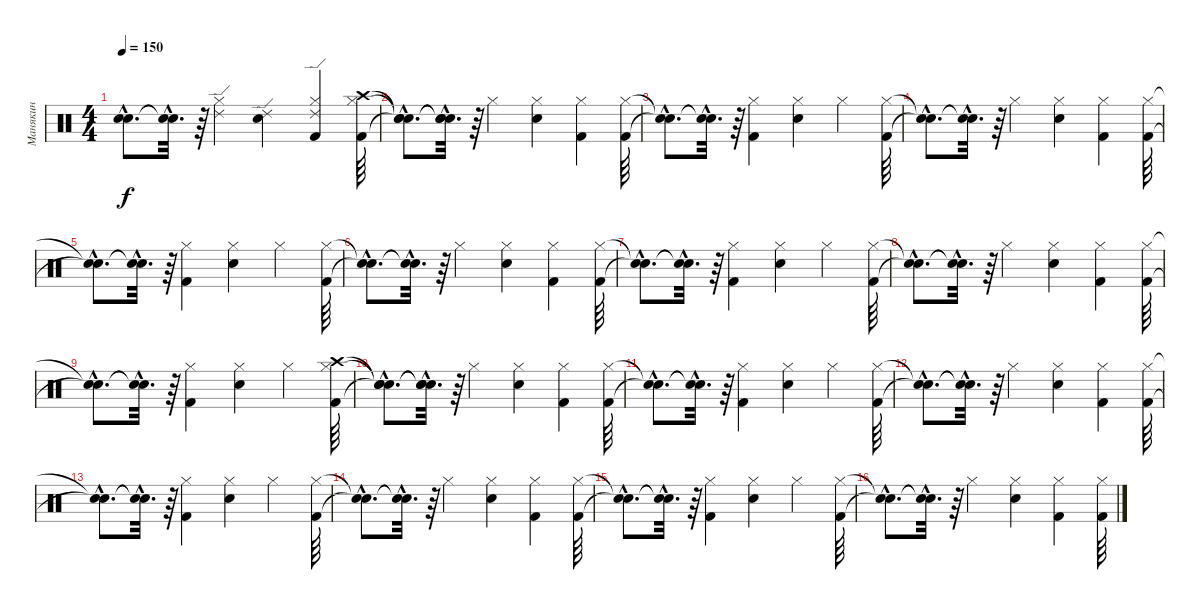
\track ("Манякин" "Манякин") {instrument percussion}
\staff {score}
\articulation defaults
\ts (4 4)
\tempo 150
\clef neutral
\ks c
("Snare (hit)"{hac t} "Snare (hit)"{hac t}).8{d dy f} ("Snare (hit)"{hac t} "Snare (hit)"{hac t}).32{d} r.64 ("Ride (edge) 2" "Hi-Hat (closed)").4 ("Ride (edge) 2" "Snare (hit) 2").4 ("Hi-Hat (closed)" "Kick (hit) 2" "Ride (edge) 2").4 ("Hi-Hat (closed)" "Crash high (hit)" "Kick (hit) 2").64 |
("Snare (hit)"{hac t} "Snare (hit)"{hac t} "Snare (hit)"{hac t}).8{d} ("Snare (hit)"{hac t} "Snare (hit)"{hac t} "Snare (hit)"{hac t}).32{d} r.64 "Hi-Hat (closed)".4 ("Hi-Hat (closed)" "Snare (hit) 2").4 ("Hi-Hat (closed)" "Kick (hit) 2").4 ("Hi-Hat (closed)" "Kick (hit) 2").64 |
("Snare (hit)"{hac t} "Snare (hit)"{hac t}).8{d} ("Snare (hit)"{hac t} "Snare (hit)"{hac t}).32{d} r.64 ("Hi-Hat (closed)" "Kick (hit) 2").4 ("Hi-Hat (closed)" "Snare (hit) 2").4 "Hi-Hat (closed)".4 ("Hi-Hat (closed)" "Kick (hit) 2").64 |
("Snare (hit)"{hac t} "Snare (hit)"{hac t}).8{d} ("Snare (hit)"{hac t} "Snare (hit)"{hac t}).32{d} r.64 "Hi-Hat (closed)".4 ("Hi-Hat (closed)" "Snare (hit) 2").4 ("Hi-Hat (closed)" "Kick (hit) 2").4 ("Hi-Hat (closed)" "Kick (hit) 2").64 |
("Snare (hit)"{hac t} "Snare (hit)"{hac t}).8{d} ("Snare (hit)"{hac t} "Snare (hit)"{hac t}).32{d} r.64 ("Hi-Hat (closed)" "Kick (hit) 2").4 ("Hi-Hat (closed)" "Snare (hit) 2").4 "Hi-Hat (closed)".4 ("Hi-Hat (closed)" "Kick (hit) 2").64 |
("Snare (hit)"{hac t} "Snare (hit)"{hac t}).8{d} ("Snare (hit)"{hac t} "Snare (hit)"{hac t}).32{d} r.64 "Hi-Hat (closed)".4 ("Hi-Hat (closed)" "Snare (hit) 2").4 ("Hi-Hat (closed)" "Kick (hit) 2").4 ("Hi-Hat (closed)" "Kick (hit) 2").64 |
("Snare (hit)"{hac t} "Snare (hit)"{hac t}).8{d} ("Snare (hit)"{hac t} "Snare (hit)"{hac t}).32{d} r.64 ("Hi-Hat (closed)" "Kick (hit) 2").4 ("Hi-Hat (closed)" "Snare (hit) 2").4 "Hi-Hat (closed)".4 ("Hi-Hat (closed)" "Kick (hit) 2").64 |
("Snare (hit)"{hac t} "Snare (hit)"{hac t}).8{d} ("Snare (hit)"{hac t} "Snare (hit)"{hac t}).32{d} r.64 "Hi-Hat (closed)".4 ("Hi-Hat (closed)" "Snare (hit) 2").4 ("Hi-Hat (closed)" "Kick (hit) 2").4 ("Hi-Hat (closed)" "Kick (hit) 2").64 |
("Snare (hit)"{hac t} "Snare (hit)"{hac t}).8{d} ("Snare (hit)"{hac t} "Snare (hit)"{hac t}).32{d} r.64 ("Hi-Hat (closed)" "Kick (hit) 2").4 ("Hi-Hat (closed)" "Snare (hit) 2").4 "Hi-Hat (closed)".4 ("Hi-Hat (closed)" "Crash high (hit)" "Kick (hit) 2").64 |
("Snare (hit)"{hac t} "Snare (hit)"{hac t} "Snare (hit)"{hac t}).8{d} ("Snare (hit)"{hac t} "Snare (hit)"{hac t} "Snare (hit)"{hac t}).32{d} r.64 "Hi-Hat (closed)".4 ("Hi-Hat (closed)" "Snare (hit) 2").4 ("Hi-Hat (closed)" "Kick (hit) 2").4 ("Hi-Hat (closed)" "Kick (hit) 2").64 |
("Snare (hit)"{hac t} "Snare (hit)"{hac t}).8{d} ("Snare (hit)"{hac t} "Snare (hit)"{hac t}).32{d} r.64 ("Hi-Hat (closed)" "Kick (hit) 2").4 ("Hi-Hat (closed)" "Snare (hit) 2").4 "Hi-Hat (closed)".4 ("Hi-Hat (closed)" "Kick (hit) 2").64 |
("Snare (hit)"{hac t} "Snare (hit)"{hac t}).8{d} ("Snare (hit)"{hac t} "Snare (hit)"{hac t}).32{d} r.64 "Hi-Hat (closed)".4 ("Hi-Hat (closed)" "Snare (hit) 2").4 ("Hi-Hat (closed)" "Kick (hit) 2").4 ("Hi-Hat (closed)" "Kick (hit) 2").64 |
("Snare (hit)"{hac t} "Snare (hit)"{hac t}).8{d} ("Snare (hit)"{hac t} "Snare (hit)"{hac t}).32{d} r.64 ("Hi-Hat (closed)" "Kick (hit) 2").4 ("Hi-Hat (closed)" "Snare (hit) 2").4 "Hi-Hat (closed)".4 ("Hi-Hat (closed)" "Kick (hit) 2").64 |
("Snare (hit)"{hac t} "Snare (hit)"{hac t}).8{d} ("Snare (hit)"{hac t} "Snare (hit)"{hac t}).32{d} r.64 "Hi-Hat (closed)".4 ("Hi-Hat (closed)" "Snare (hit) 2").4 ("Hi-Hat (closed)" "Kick (hit) 2").4 ("Hi-Hat (closed)" "Kick (hit) 2").64 |
("Snare (hit)"{hac t} "Snare (hit)"{hac t}).8{d} ("Snare (hit)"{hac t} "Snare (hit)"{hac t}).32{d} r.64 ("Hi-Hat (closed)" "Kick (hit) 2").4 ("Hi-Hat (closed)" "Snare (hit) 2").4 "Hi-Hat (closed)".4 ("Hi-Hat (closed)" "Kick (hit) 2").64 |
("Snare (hit)"{hac t} "Snare (hit)"{hac t}).8{d} ("Snare (hit)"{hac t} "Snare (hit)"{hac t}).32{d} r.64 "Hi-Hat (closed)".4 ("Hi-Hat (closed)" "Snare (hit) 2").4 ("Hi-Hat (closed)" "Kick (hit) 2").4 ("Hi-Hat (closed)" "Kick (hit) 2").64
